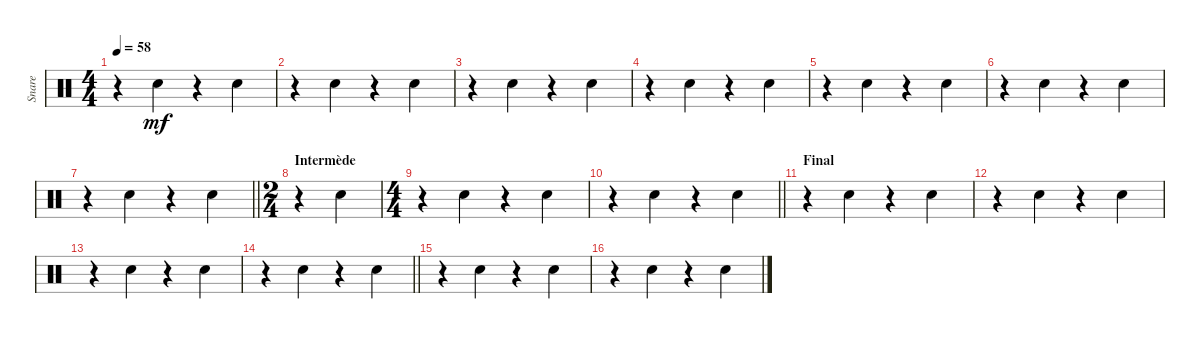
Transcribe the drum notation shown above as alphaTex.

\track ("Snare" "Snare") {instrument percussion}
\staff {score}
\articulation defaults
\ts (4 4)
\tempo 58
\clef neutral
\ks c
r.4{dy mf} "Electric Snare (hit)".4 r.4 "Electric Snare (hit)".4 |
r.4 "Electric Snare (hit)".4 r.4 "Electric Snare (hit)".4 |
r.4 "Electric Snare (hit)".4 r.4 "Electric Snare (hit)".4 |
r.4 "Electric Snare (hit)".4 r.4 "Electric Snare (hit)".4 |
r.4 "Electric Snare (hit)".4 r.4 "Electric Snare (hit)".4 |
r.4 "Electric Snare (hit)".4 r.4 "Electric Snare (hit)".4 |
\barLineRight lightlight
r.4 "Electric Snare (hit)".4 r.4 "Electric Snare (hit)".4 |
\ts (2 4)
\section ("" "Intermède")
r.4 "Electric Snare (hit)".4 |
\ts (4 4)
r.4 "Electric Snare (hit)".4 r.4 "Electric Snare (hit)".4 |
\barLineRight lightlight
r.4 "Electric Snare (hit)".4 r.4 "Electric Snare (hit)".4 |
\section ("" "Final")
r.4 "Electric Snare (hit)".4 r.4 "Electric Snare (hit)".4 |
r.4 "Electric Snare (hit)".4 r.4 "Electric Snare (hit)".4 |
r.4 "Electric Snare (hit)".4 r.4 "Electric Snare (hit)".4 |
\barLineRight lightlight
r.4 "Electric Snare (hit)".4 r.4 "Electric Snare (hit)".4 |
r.4 "Electric Snare (hit)".4 r.4 "Electric Snare (hit)".4 |
r.4 "Electric Snare (hit)".4 r.4 "Electric Snare (hit)".4
